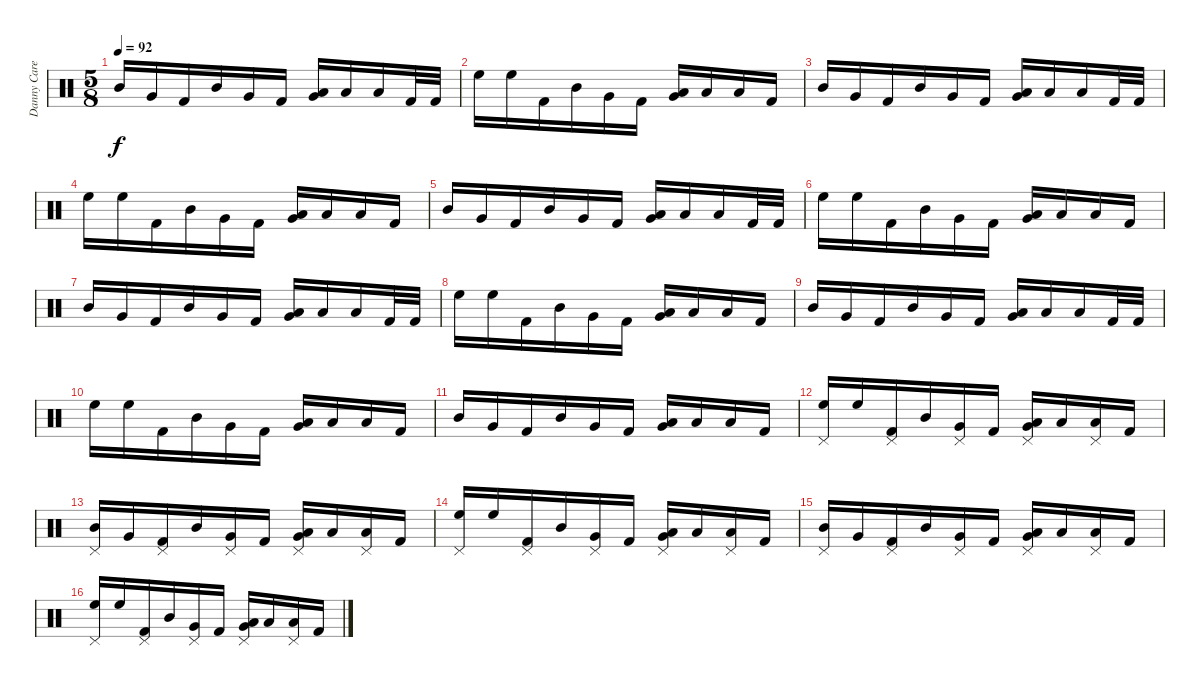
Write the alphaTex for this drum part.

\track ("Danny Carey" "Danny Care") {instrument percussion}
\staff {score}
\articulation defaults
\ts (5 8)
\tempo 92
\clef neutral
\ks c "Mid Tom (hit)".16{dy f} "Very Low Tom (hit)".16 "Kick (hit) 2".16 "Mid Tom (hit)".16 "Very Low Tom (hit)".16 "Kick (hit) 2".16
("Low Floor Tom (hit)" "Very Low Tom (hit)").16 "Low Floor Tom (hit)".16 "Low Floor Tom (hit)".16 "Kick (hit) 2".32 "Kick (hit) 2".32 |
"High Floor Tom (hit)".16 "High Floor Tom (hit)".16 "Kick (hit) 2".16 "Mid Tom (hit)".16 "Very Low Tom (hit)".16 "Kick (hit) 2".16 ("Low Floor Tom (hit)" "Very Low Tom (hit)").16 "Low Floor Tom (hit)".16 "Low Floor Tom (hit)".16 "Kick (hit) 2".16 |
"Mid Tom (hit)".16 "Very Low Tom (hit)".16 "Kick (hit) 2".16 "Mid Tom (hit)".16 "Very Low Tom (hit)".16 "Kick (hit) 2".16 ("Low Floor Tom (hit)" "Very Low Tom (hit)").16 "Low Floor Tom (hit)".16 "Low Floor Tom (hit)".16 "Kick (hit) 2".32 "Kick (hit) 2".32 |
"High Floor Tom (hit)".16 "High Floor Tom (hit)".16 "Kick (hit) 2".16 "Mid Tom (hit)".16 "Very Low Tom (hit)".16 "Kick (hit) 2".16 ("Low Floor Tom (hit)" "Very Low Tom (hit)").16 "Low Floor Tom (hit)".16 "Low Floor Tom (hit)".16 "Kick (hit) 2".16 |
"Mid Tom (hit)".16 "Very Low Tom (hit)".16 "Kick (hit) 2".16 "Mid Tom (hit)".16 "Very Low Tom (hit)".16 "Kick (hit) 2".16 ("Low Floor Tom (hit)" "Very Low Tom (hit)").16 "Low Floor Tom (hit)".16 "Low Floor Tom (hit)".16 "Kick (hit) 2".32 "Kick (hit) 2".32 |
"High Floor Tom (hit)".16 "High Floor Tom (hit)".16 "Kick (hit) 2".16 "Mid Tom (hit)".16 "Very Low Tom (hit)".16 "Kick (hit) 2".16 ("Low Floor Tom (hit)" "Very Low Tom (hit)").16 "Low Floor Tom (hit)".16 "Low Floor Tom (hit)".16 "Kick (hit) 2".16 |
"Mid Tom (hit)".16 "Very Low Tom (hit)".16 "Kick (hit) 2".16 "Mid Tom (hit)".16 "Very Low Tom (hit)".16 "Kick (hit) 2".16 ("Low Floor Tom (hit)" "Very Low Tom (hit)").16 "Low Floor Tom (hit)".16 "Low Floor Tom (hit)".16 "Kick (hit) 2".32 "Kick (hit) 2".32 |
"High Floor Tom (hit)".16 "High Floor Tom (hit)".16 "Kick (hit) 2".16 "Mid Tom (hit)".16 "Very Low Tom (hit)".16 "Kick (hit) 2".16 ("Low Floor Tom (hit)" "Very Low Tom (hit)").16 "Low Floor Tom (hit)".16 "Low Floor Tom (hit)".16 "Kick (hit) 2".16 |
"Mid Tom (hit)".16 "Very Low Tom (hit)".16 "Kick (hit) 2".16 "Mid Tom (hit)".16 "Very Low Tom (hit)".16 "Kick (hit) 2".16 ("Low Floor Tom (hit)" "Very Low Tom (hit)").16 "Low Floor Tom (hit)".16 "Low Floor Tom (hit)".16 "Kick (hit) 2".32 "Kick (hit) 2".32 |
"High Floor Tom (hit)".16 "High Floor Tom (hit)".16 "Kick (hit) 2".16 "Mid Tom (hit)".16 "Very Low Tom (hit)".16 "Kick (hit) 2".16 ("Low Floor Tom (hit)" "Very Low Tom (hit)").16 "Low Floor Tom (hit)".16 "Low Floor Tom (hit)".16 "Kick (hit) 2".16 |
"Mid Tom (hit)".16 "Very Low Tom (hit)".16 "Kick (hit) 2".16 "Mid Tom (hit)".16 "Very Low Tom (hit)".16 "Kick (hit) 2".16 ("Low Floor Tom (hit)" "Very Low Tom (hit)").16 "Low Floor Tom (hit)".16 "Low Floor Tom (hit)".16 "Kick (hit) 2".16 |
("Pedal Hi-Hat (hit)" "High Floor Tom (hit)").16 "High Floor Tom (hit)".16 ("Pedal Hi-Hat (hit)" "Kick (hit) 2").16 "Mid Tom (hit)".16 ("Pedal Hi-Hat (hit)" "Very Low Tom (hit)").16 "Kick (hit) 2".16 ("Pedal Hi-Hat (hit)" "Low Floor Tom (hit)" "Very Low Tom (hit)").16 "Low Floor Tom (hit)".16 ("Pedal Hi-Hat (hit)" "Low Floor Tom (hit)").16 "Kick (hit) 2".16 |
("Pedal Hi-Hat (hit)" "Mid Tom (hit)").16 "Very Low Tom (hit)".16 ("Pedal Hi-Hat (hit)" "Kick (hit) 2").16 "Mid Tom (hit)".16 ("Pedal Hi-Hat (hit)" "Very Low Tom (hit)").16 "Kick (hit) 2".16 ("Pedal Hi-Hat (hit)" "Low Floor Tom (hit)" "Very Low Tom (hit)").16 "Low Floor Tom (hit)".16 ("Pedal Hi-Hat (hit)" "Low Floor Tom (hit)").16 "Kick (hit) 2".16 |
("Pedal Hi-Hat (hit)" "High Floor Tom (hit)").16 "High Floor Tom (hit)".16 ("Pedal Hi-Hat (hit)" "Kick (hit) 2").16 "Mid Tom (hit)".16 ("Pedal Hi-Hat (hit)" "Very Low Tom (hit)").16 "Kick (hit) 2".16 ("Pedal Hi-Hat (hit)" "Low Floor Tom (hit)" "Very Low Tom (hit)").16 "Low Floor Tom (hit)".16 ("Pedal Hi-Hat (hit)" "Low Floor Tom (hit)").16 "Kick (hit) 2".16 |
("Pedal Hi-Hat (hit)" "Mid Tom (hit)").16 "Very Low Tom (hit)".16 ("Pedal Hi-Hat (hit)" "Kick (hit) 2").16 "Mid Tom (hit)".16 ("Pedal Hi-Hat (hit)" "Very Low Tom (hit)").16 "Kick (hit) 2".16 ("Pedal Hi-Hat (hit)" "Low Floor Tom (hit)" "Very Low Tom (hit)").16 "Low Floor Tom (hit)".16 ("Pedal Hi-Hat (hit)" "Low Floor Tom (hit)").16 "Kick (hit) 2".16 |
("Pedal Hi-Hat (hit)" "High Floor Tom (hit)").16 "High Floor Tom (hit)".16 ("Pedal Hi-Hat (hit)" "Kick (hit) 2").16 "Mid Tom (hit)".16 ("Pedal Hi-Hat (hit)" "Very Low Tom (hit)").16 "Kick (hit) 2".16 ("Pedal Hi-Hat (hit)" "Low Floor Tom (hit)" "Very Low Tom (hit)").16 "Low Floor Tom (hit)".16 ("Pedal Hi-Hat (hit)" "Low Floor Tom (hit)").16 "Kick (hit) 2".16
